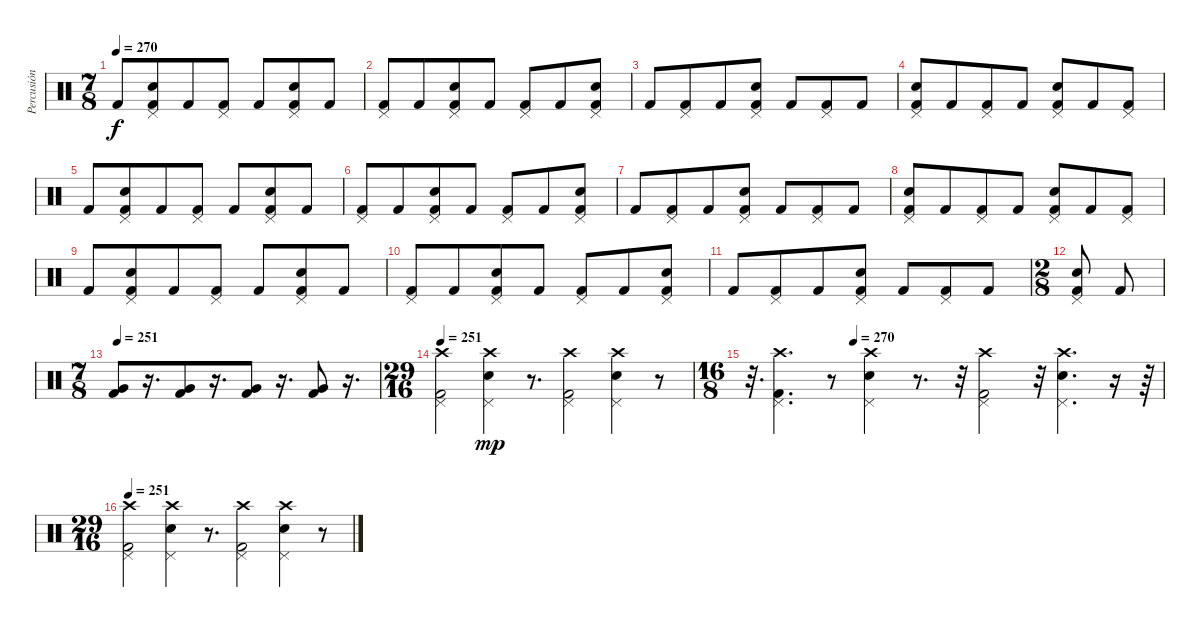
\track ("Percusión" "Percusión") {instrument percussion}
\staff {score}
\articulation defaults
\ts (7 8)
\tempo 270
\clef neutral
\ks c "Kick (hit) 2".8{dy f}
("Pedal Hi-Hat (hit)" "Snare (hit) 2" "Kick (hit) 2").8 "Kick (hit) 2".8 ("Pedal Hi-Hat (hit)" "Kick (hit) 2").8 "Kick (hit) 2".8 ("Pedal Hi-Hat (hit)" "Snare (hit) 2" "Kick (hit) 2").8 "Kick (hit) 2".8 |
("Pedal Hi-Hat (hit)" "Kick (hit) 2").8 "Kick (hit) 2".8 ("Pedal Hi-Hat (hit)" "Snare (hit) 2" "Kick (hit) 2").8 "Kick (hit) 2".8 ("Pedal Hi-Hat (hit)" "Kick (hit) 2").8 "Kick (hit) 2".8 ("Pedal Hi-Hat (hit)" "Snare (hit) 2" "Kick (hit) 2").8 |
"Kick (hit) 2".8 ("Pedal Hi-Hat (hit)" "Kick (hit) 2").8 "Kick (hit) 2".8 ("Pedal Hi-Hat (hit)" "Snare (hit) 2" "Kick (hit) 2").8 "Kick (hit) 2".8 ("Pedal Hi-Hat (hit)" "Kick (hit) 2").8 "Kick (hit) 2".8 |
("Pedal Hi-Hat (hit)" "Snare (hit) 2" "Kick (hit) 2").8 "Kick (hit) 2".8 ("Pedal Hi-Hat (hit)" "Kick (hit) 2").8 "Kick (hit) 2".8 ("Pedal Hi-Hat (hit)" "Snare (hit) 2" "Kick (hit) 2").8 "Kick (hit) 2".8 ("Pedal Hi-Hat (hit)" "Kick (hit) 2").8 |
"Kick (hit) 2".8 ("Pedal Hi-Hat (hit)" "Snare (hit) 2" "Kick (hit) 2").8 "Kick (hit) 2".8 ("Pedal Hi-Hat (hit)" "Kick (hit) 2").8 "Kick (hit) 2".8 ("Pedal Hi-Hat (hit)" "Snare (hit) 2" "Kick (hit) 2").8 "Kick (hit) 2".8 |
("Pedal Hi-Hat (hit)" "Kick (hit) 2").8 "Kick (hit) 2".8 ("Pedal Hi-Hat (hit)" "Snare (hit) 2" "Kick (hit) 2").8 "Kick (hit) 2".8 ("Pedal Hi-Hat (hit)" "Kick (hit) 2").8 "Kick (hit) 2".8 ("Pedal Hi-Hat (hit)" "Snare (hit) 2" "Kick (hit) 2").8 |
"Kick (hit) 2".8 ("Pedal Hi-Hat (hit)" "Kick (hit) 2").8 "Kick (hit) 2".8 ("Pedal Hi-Hat (hit)" "Snare (hit) 2" "Kick (hit) 2").8 "Kick (hit) 2".8 ("Pedal Hi-Hat (hit)" "Kick (hit) 2").8 "Kick (hit) 2".8 |
("Pedal Hi-Hat (hit)" "Snare (hit) 2" "Kick (hit) 2").8 "Kick (hit) 2".8 ("Pedal Hi-Hat (hit)" "Kick (hit) 2").8 "Kick (hit) 2".8 ("Pedal Hi-Hat (hit)" "Snare (hit) 2" "Kick (hit) 2").8 "Kick (hit) 2".8 ("Pedal Hi-Hat (hit)" "Kick (hit) 2").8 |
"Kick (hit) 2".8 ("Pedal Hi-Hat (hit)" "Snare (hit) 2" "Kick (hit) 2").8 "Kick (hit) 2".8 ("Pedal Hi-Hat (hit)" "Kick (hit) 2").8 "Kick (hit) 2".8 ("Pedal Hi-Hat (hit)" "Snare (hit) 2" "Kick (hit) 2").8 "Kick (hit) 2".8 |
("Pedal Hi-Hat (hit)" "Kick (hit) 2").8 "Kick (hit) 2".8 ("Pedal Hi-Hat (hit)" "Snare (hit) 2" "Kick (hit) 2").8 "Kick (hit) 2".8 ("Pedal Hi-Hat (hit)" "Kick (hit) 2").8 "Kick (hit) 2".8 ("Pedal Hi-Hat (hit)" "Snare (hit) 2" "Kick (hit) 2").8 |
"Kick (hit) 2".8 ("Pedal Hi-Hat (hit)" "Kick (hit) 2").8 "Kick (hit) 2".8 ("Pedal Hi-Hat (hit)" "Snare (hit) 2" "Kick (hit) 2").8 "Kick (hit) 2".8 ("Pedal Hi-Hat (hit)" "Kick (hit) 2").8 "Kick (hit) 2".8 |
\ts (2 8)
("Pedal Hi-Hat (hit)" "Snare (hit) 2" "Kick (hit) 2").8 "Kick (hit) 2".8 |
\ts (7 8)
\tempo 251
("Kick (hit) 2" "Very Low Tom (hit)").8 r.16{d} ("Kick (hit) 2" "Very Low Tom (hit)").8 r.16{d} ("Kick (hit) 2" "Very Low Tom (hit)").8 r.16{d} ("Kick (hit) 2" "Very Low Tom (hit)").8 r.16{d} |
\ts (29 16)
\tempo 251
("Crash high (hit)" "Pedal Hi-Hat (hit)" "Kick (hit) 2").2 ("Crash high (hit)" "Pedal Hi-Hat (hit)" "Snare (hit) 2").4{dy mp} r.8{d} ("Crash high (hit)" "Pedal Hi-Hat (hit)" "Kick (hit) 2").2 ("Crash high (hit)" "Pedal Hi-Hat (hit)" "Snare (hit) 2").4 r.8 |
\ts (16 8)
\tempo (270 0.25)
r.32{d} ("Crash high (hit)" "Pedal Hi-Hat (hit)" "Kick (hit) 2").4{d} r.8 ("Crash high (hit)" "Pedal Hi-Hat (hit)" "Snare (hit) 2").4 r.8{d} r.32 ("Crash high (hit)" "Pedal Hi-Hat (hit)" "Kick (hit) 2").2 r.32 ("Crash high (hit)" "Pedal Hi-Hat (hit)" "Snare (hit) 2").4{d} r.16 r.64 |
\ts (29 16)
\tempo 251
("Crash high (hit)" "Pedal Hi-Hat (hit)" "Kick (hit) 2").2 ("Crash high (hit)" "Pedal Hi-Hat (hit)" "Snare (hit) 2").4 r.8{d} ("Crash high (hit)" "Pedal Hi-Hat (hit)" "Kick (hit) 2").2 ("Crash high (hit)" "Pedal Hi-Hat (hit)" "Snare (hit) 2").4 r.8
